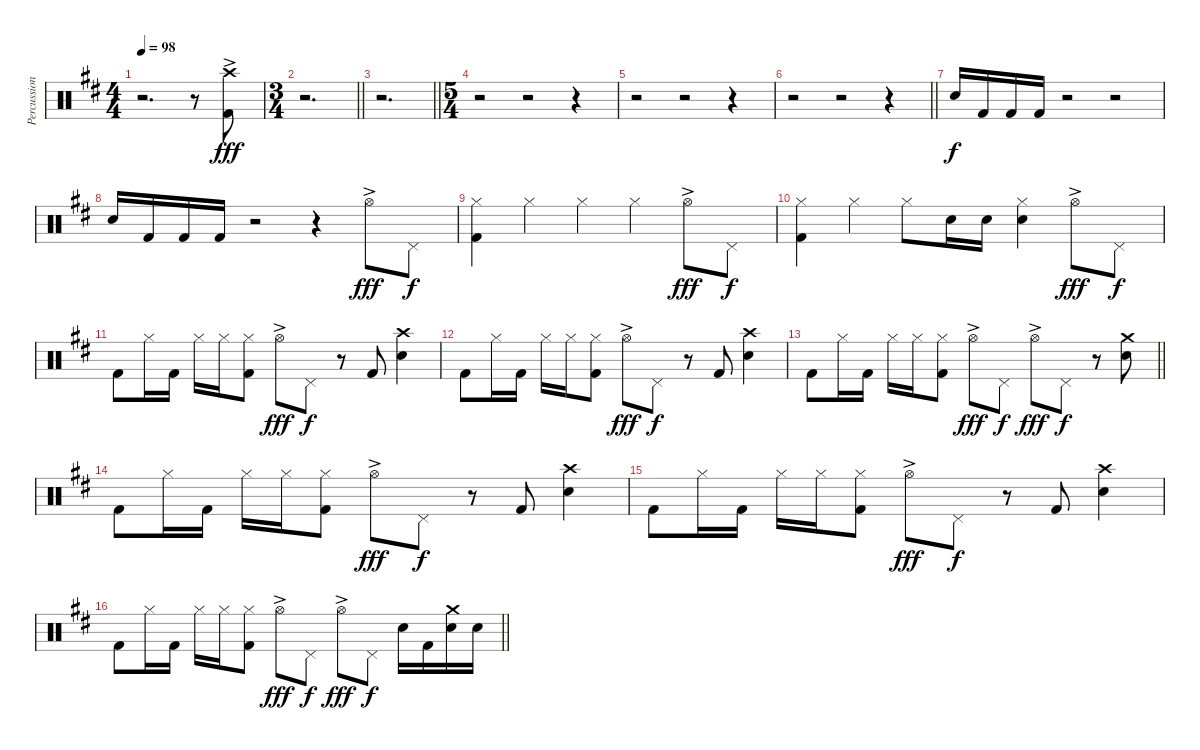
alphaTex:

\track ("Percussions" "Percussion") {instrument percussion}
\staff {score}
\articulation defaults
\ts (4 4)
\tempo 98
\clef neutral
\ks bminor
r.2{d dy fff} r.8 ("Crash high (hit)"{ac} "Kick (hit) 2"{ac}).8 |
\ts (3 4)
\barLineRight lightlight
r.2{d} |
\barLineRight lightlight
r.2{d} |
\ts (5 4)
r.2 r.2 r.4 |
r.2 r.2 r.4 |
\barLineRight lightlight
r.2 r.2 r.4 |
"Snare (hit) 2".16{dy f volume 13} "Kick (hit) 2".16 "Kick (hit) 2".16 "Kick (hit) 2".16 r.2 r.2 |
"Snare (hit) 2".16 "Kick (hit) 2".16 "Kick (hit) 2".16 "Kick (hit) 2".16 r.2 r.4 "Hi-Hat (open)"{ac}.8{dy fff} "Pedal Hi-Hat (hit)".8{dy f} |
("Hi-Hat (closed)" "Kick (hit) 2").4 "Hi-Hat (closed)".4 "Hi-Hat (closed)".4 "Hi-Hat (closed)".4 "Hi-Hat (open)"{ac}.8{dy fff} "Pedal Hi-Hat (hit)".8{dy f} |
("Hi-Hat (closed)" "Kick (hit) 2").4 "Hi-Hat (closed)".4 "Hi-Hat (closed)".8 "Snare (hit) 2".16 "Snare (hit) 2".16 ("Hi-Hat (closed)" "Snare (hit) 2").4 "Hi-Hat (open)"{ac}.8{dy fff} "Pedal Hi-Hat (hit)".8{dy f} |
"Kick (hit) 2".8 "Hi-Hat (closed)".16 "Kick (hit) 2".16 "Hi-Hat (closed)".16 "Hi-Hat (closed)".16 ("Hi-Hat (closed)" "Kick (hit) 2").8 "Hi-Hat (open)"{ac}.8{dy fff} "Pedal Hi-Hat (hit)".8{dy f} r.8 "Kick (hit) 2".8 ("Crash high (hit)" "Snare (hit) 2").4 |
"Kick (hit) 2".8 "Hi-Hat (closed)".16 "Kick (hit) 2".16 "Hi-Hat (closed)".16 "Hi-Hat (closed)".16 ("Hi-Hat (closed)" "Kick (hit) 2").8 "Hi-Hat (open)"{ac}.8{dy fff} "Pedal Hi-Hat (hit)".8{dy f} r.8 "Kick (hit) 2".8 ("Crash high (hit)" "Snare (hit) 2").4 |
\barLineRight lightlight "Kick (hit) 2".8 "Hi-Hat (closed)".16 "Kick (hit) 2".16 "Hi-Hat (closed)".16 "Hi-Hat (closed)".16
("Hi-Hat (closed)" "Kick (hit) 2").8 "Hi-Hat (open)"{ac}.8{dy fff} "Pedal Hi-Hat (hit)".8{dy f} "Hi-Hat (open)"{ac}.8{dy fff} "Pedal Hi-Hat (hit)".8{dy f} r.8 ("Crash medium (hit)" "Snare (hit) 2").8 |
"Kick (hit) 2".8 "Hi-Hat (closed)".16 "Kick (hit) 2".16 "Hi-Hat (closed)".16 "Hi-Hat (closed)".16 ("Hi-Hat (closed)" "Kick (hit) 2").8 "Hi-Hat (open)"{ac}.8{dy fff} "Pedal Hi-Hat (hit)".8{dy f} r.8 "Kick (hit) 2".8 ("Crash high (hit)" "Snare (hit) 2").4 |
"Kick (hit) 2".8 "Hi-Hat (closed)".16 "Kick (hit) 2".16 "Hi-Hat (closed)".16 "Hi-Hat (closed)".16 ("Hi-Hat (closed)" "Kick (hit) 2").8 "Hi-Hat (open)"{ac}.8{dy fff} "Pedal Hi-Hat (hit)".8{dy f} r.8 "Kick (hit) 2".8 ("Crash high (hit)" "Snare (hit) 2").4 |
\barLineRight lightlight "Kick (hit) 2".8 "Hi-Hat (closed)".16 "Kick (hit) 2".16 "Hi-Hat (closed)".16 "Hi-Hat (closed)".16
("Hi-Hat (closed)" "Kick (hit) 2").8 "Hi-Hat (open)"{ac}.8{dy fff} "Pedal Hi-Hat (hit)".8{dy f} "Hi-Hat (open)"{ac}.8{dy fff} "Pedal Hi-Hat (hit)".8{dy f} "Snare (hit) 2".16 "Kick (hit) 2".16 ("Crash medium (hit)" "Snare (hit) 2").16 "Snare (hit) 2".16
